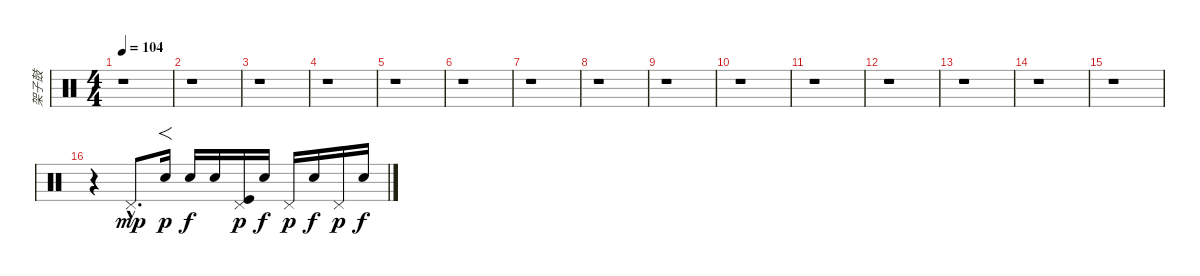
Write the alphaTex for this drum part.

\track ("架子鼓" "架子鼓") {instrument percussion}
\staff {score}
\articulation defaults
\ts (4 4)
\tempo 104
\clef neutral
\ks c
r.1{dy mp} |
r.1 |
r.1 |
r.1 |
r.1 |
r.1 |
r.1 |
r.1 |
r.1 |
r.1 |
r.1 |
r.1 |
r.1 |
r.1 |
r.1 |
r.4 "Pedal Hi-Hat (hit)"{hac}.8{d} "Electric Snare (hit)"{tr (40 64)}.16{f dy p} "Electric Snare (hit)".16{dy f} "Electric Snare (hit)".16 ("Pedal Hi-Hat (hit)" "Kick (hit)").16{dy p} "Electric Snare (hit)".16{dy f} "Pedal Hi-Hat (hit)".16{dy p} "Electric Snare (hit)".16{dy f} "Pedal Hi-Hat (hit)".16{dy p} "Electric Snare (hit)".16{dy f}
